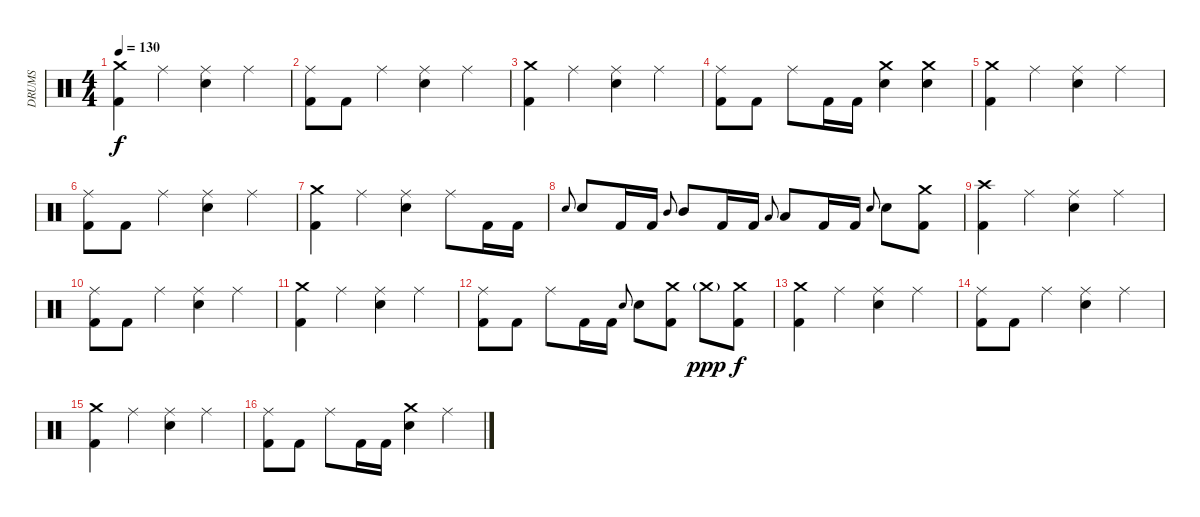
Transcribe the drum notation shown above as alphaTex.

\track ("DRUMS" "DRUMS") {instrument percussion}
\staff {score}
\articulation defaults
\ts (4 4)
\tempo 130
\clef neutral
\ks c
("Crash medium (hit)" "Kick (hit) 2").4{dy f} "Ride (middle)".4 ("Ride (middle)" "Snare (hit) 2").4 "Ride (middle)".4 |
("Ride (middle)" "Kick (hit) 2").8 "Kick (hit) 2".8 "Ride (middle)".4 ("Ride (middle)" "Snare (hit) 2").4 "Ride (middle)".4 |
("Crash medium (hit)" "Kick (hit) 2").4 "Ride (middle)".4 ("Ride (middle)" "Snare (hit) 2").4 "Ride (middle)".4 |
("Ride (middle)" "Kick (hit) 2").8 "Kick (hit) 2".8 "Ride (middle)".8 "Kick (hit) 2".16 "Kick (hit) 2".16 ("Crash medium (hit)" "Snare (hit) 2").4 ("Crash medium (hit)" "Snare (hit) 2").4 |
("Crash medium (hit)" "Kick (hit) 2").4 "Ride (middle)".4 ("Ride (middle)" "Snare (hit) 2").4 "Ride (middle)".4 |
("Ride (middle)" "Kick (hit) 2").8 "Kick (hit) 2".8 "Ride (middle)".4 ("Ride (middle)" "Snare (hit) 2").4 "Ride (middle)".4 |
("Crash medium (hit)" "Kick (hit) 2").4 "Ride (middle)".4 ("Ride (middle)" "Snare (hit) 2").4 "Ride (middle)".8 "Kick (hit) 2".16 "Kick (hit) 2".16 |
"Snare (hit) 2".8{gr onbeat} "Snare (hit) 2".8 "Kick (hit) 2".16 "Kick (hit) 2".16 "Mid Tom (hit)".8{gr onbeat} "Mid Tom (hit)".8 "Kick (hit) 2".16 "Kick (hit) 2".16 "Low Tom (hit)".8{gr onbeat} "Low Tom (hit)".8 "Kick (hit) 2".16 "Kick (hit) 2".16 "Snare (hit) 2".8{gr onbeat} "Snare (hit) 2".8 ("Crash medium (hit)" "Kick (hit) 2").8 |
("Crash high (hit)" "Kick (hit) 2").4 "Ride (middle)".4 ("Ride (middle)" "Snare (hit) 2").4 "Ride (middle)".4 |
("Ride (middle)" "Kick (hit) 2").8 "Kick (hit) 2".8 "Ride (middle)".4 ("Ride (middle)" "Snare (hit) 2").4 "Ride (middle)".4 |
("Crash medium (hit)" "Kick (hit) 2").4 "Ride (middle)".4 ("Ride (middle)" "Snare (hit) 2").4 "Ride (middle)".4 |
("Ride (middle)" "Kick (hit) 2").8 "Kick (hit) 2".8 "Ride (middle)".8 "Kick (hit) 2".16 "Kick (hit) 2".16 "Snare (hit) 2".8{gr onbeat} "Snare (hit) 2".8 ("Crash medium (hit)" "Kick (hit) 2").8{volume 9} "Crash medium (hit)"{g}.8{dy ppp} ("Crash medium (hit)" "Kick (hit) 2").8{dy f} |
("Crash medium (hit)" "Kick (hit) 2").4 "Ride (middle)".4 ("Ride (middle)" "Snare (hit) 2").4 "Ride (middle)".4 |
("Ride (middle)" "Kick (hit) 2").8 "Kick (hit) 2".8 "Ride (middle)".4 ("Ride (middle)" "Snare (hit) 2").4 "Ride (middle)".4 |
("Crash medium (hit)" "Kick (hit) 2").4 "Ride (middle)".4{volume 6} ("Ride (middle)" "Snare (hit) 2").4 "Ride (middle)".4 |
("Ride (middle)" "Kick (hit) 2").8 "Kick (hit) 2".8 "Ride (middle)".8 "Kick (hit) 2".16 "Kick (hit) 2".16 ("Crash medium (hit)" "Snare (hit) 2").4 "Ride (middle)".4
